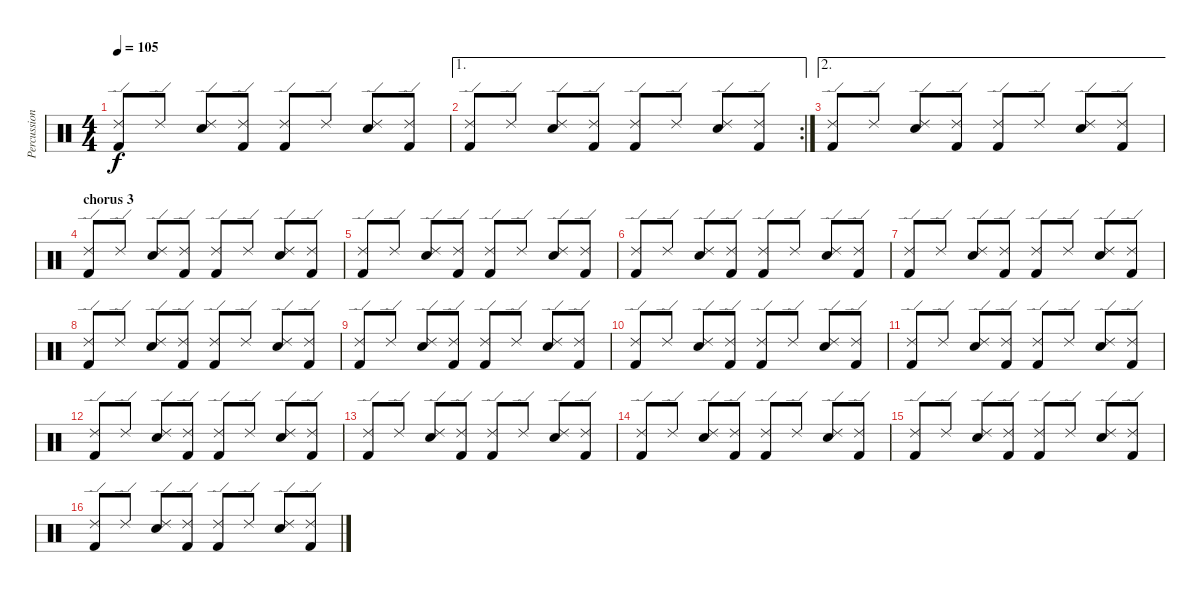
\track ("Percussion" "Percussion") {instrument percussion}
\staff {score}
\articulation defaults
\ts (4 4)
\tempo 105
\clef neutral
\ks c
("Ride (edge) 2" "Kick (hit) 2").8{dy f} "Ride (edge) 2".8 ("Ride (edge) 2" "Electric Snare (hit)").8 ("Ride (edge) 2" "Kick (hit) 2").8 ("Ride (edge) 2" "Kick (hit) 2").8 "Ride (edge) 2".8 ("Ride (edge) 2" "Electric Snare (hit)").8 ("Ride (edge) 2" "Kick (hit) 2").8 |
\ae 1
\rc 2
("Ride (edge) 2" "Kick (hit) 2").8 "Ride (edge) 2".8 ("Ride (edge) 2" "Electric Snare (hit)").8 ("Ride (edge) 2" "Kick (hit) 2").8 ("Ride (edge) 2" "Kick (hit) 2").8 "Ride (edge) 2".8 ("Ride (edge) 2" "Electric Snare (hit)").8 ("Ride (edge) 2" "Kick (hit) 2").8 |
\ae 2
("Ride (edge) 2" "Kick (hit) 2").8 "Ride (edge) 2".8 ("Ride (edge) 2" "Electric Snare (hit)").8 ("Ride (edge) 2" "Kick (hit) 2").8 ("Ride (edge) 2" "Kick (hit) 2").8 "Ride (edge) 2".8 ("Ride (edge) 2" "Electric Snare (hit)").8 ("Ride (edge) 2" "Kick (hit) 2").8 |
\section ("" "chorus 3")
("Ride (edge) 2" "Kick (hit) 2").8 "Ride (edge) 2".8 ("Ride (edge) 2" "Electric Snare (hit)").8 ("Ride (edge) 2" "Kick (hit) 2").8 ("Ride (edge) 2" "Kick (hit) 2").8 "Ride (edge) 2".8 ("Ride (edge) 2" "Electric Snare (hit)").8 ("Ride (edge) 2" "Kick (hit) 2").8 |
("Ride (edge) 2" "Kick (hit) 2").8 "Ride (edge) 2".8 ("Ride (edge) 2" "Electric Snare (hit)").8 ("Ride (edge) 2" "Kick (hit) 2").8 ("Ride (edge) 2" "Kick (hit) 2").8 "Ride (edge) 2".8 ("Ride (edge) 2" "Electric Snare (hit)").8 ("Ride (edge) 2" "Kick (hit) 2").8 |
("Ride (edge) 2" "Kick (hit) 2").8 "Ride (edge) 2".8 ("Ride (edge) 2" "Electric Snare (hit)").8 ("Ride (edge) 2" "Kick (hit) 2").8 ("Ride (edge) 2" "Kick (hit) 2").8 "Ride (edge) 2".8 ("Ride (edge) 2" "Electric Snare (hit)").8 ("Ride (edge) 2" "Kick (hit) 2").8 |
("Ride (edge) 2" "Kick (hit) 2").8 "Ride (edge) 2".8 ("Ride (edge) 2" "Electric Snare (hit)").8 ("Ride (edge) 2" "Kick (hit) 2").8 ("Ride (edge) 2" "Kick (hit) 2").8 "Ride (edge) 2".8 ("Ride (edge) 2" "Electric Snare (hit)").8 ("Ride (edge) 2" "Kick (hit) 2").8 |
("Ride (edge) 2" "Kick (hit) 2").8 "Ride (edge) 2".8 ("Ride (edge) 2" "Electric Snare (hit)").8 ("Ride (edge) 2" "Kick (hit) 2").8 ("Ride (edge) 2" "Kick (hit) 2").8 "Ride (edge) 2".8 ("Ride (edge) 2" "Electric Snare (hit)").8 ("Ride (edge) 2" "Kick (hit) 2").8 |
("Ride (edge) 2" "Kick (hit) 2").8 "Ride (edge) 2".8 ("Ride (edge) 2" "Electric Snare (hit)").8 ("Ride (edge) 2" "Kick (hit) 2").8 ("Ride (edge) 2" "Kick (hit) 2").8 "Ride (edge) 2".8 ("Ride (edge) 2" "Electric Snare (hit)").8 ("Ride (edge) 2" "Kick (hit) 2").8 |
("Ride (edge) 2" "Kick (hit) 2").8 "Ride (edge) 2".8 ("Ride (edge) 2" "Electric Snare (hit)").8 ("Ride (edge) 2" "Kick (hit) 2").8 ("Ride (edge) 2" "Kick (hit) 2").8 "Ride (edge) 2".8 ("Ride (edge) 2" "Electric Snare (hit)").8 ("Ride (edge) 2" "Kick (hit) 2").8 |
("Ride (edge) 2" "Kick (hit) 2").8 "Ride (edge) 2".8 ("Ride (edge) 2" "Electric Snare (hit)").8 ("Ride (edge) 2" "Kick (hit) 2").8 ("Ride (edge) 2" "Kick (hit) 2").8 "Ride (edge) 2".8 ("Ride (edge) 2" "Electric Snare (hit)").8 ("Ride (edge) 2" "Kick (hit) 2").8 |
("Ride (edge) 2" "Kick (hit) 2").8 "Ride (edge) 2".8 ("Ride (edge) 2" "Electric Snare (hit)").8 ("Ride (edge) 2" "Kick (hit) 2").8 ("Ride (edge) 2" "Kick (hit) 2").8 "Ride (edge) 2".8 ("Ride (edge) 2" "Electric Snare (hit)").8 ("Ride (edge) 2" "Kick (hit) 2").8 |
("Ride (edge) 2" "Kick (hit) 2").8 "Ride (edge) 2".8 ("Ride (edge) 2" "Electric Snare (hit)").8 ("Ride (edge) 2" "Kick (hit) 2").8 ("Ride (edge) 2" "Kick (hit) 2").8 "Ride (edge) 2".8 ("Ride (edge) 2" "Electric Snare (hit)").8 ("Ride (edge) 2" "Kick (hit) 2").8 |
("Ride (edge) 2" "Kick (hit) 2").8 "Ride (edge) 2".8 ("Ride (edge) 2" "Electric Snare (hit)").8 ("Ride (edge) 2" "Kick (hit) 2").8 ("Ride (edge) 2" "Kick (hit) 2").8 "Ride (edge) 2".8 ("Ride (edge) 2" "Electric Snare (hit)").8 ("Ride (edge) 2" "Kick (hit) 2").8 |
("Ride (edge) 2" "Kick (hit) 2").8 "Ride (edge) 2".8 ("Ride (edge) 2" "Electric Snare (hit)").8 ("Ride (edge) 2" "Kick (hit) 2").8 ("Ride (edge) 2" "Kick (hit) 2").8 "Ride (edge) 2".8 ("Ride (edge) 2" "Electric Snare (hit)").8 ("Ride (edge) 2" "Kick (hit) 2").8 |
("Ride (edge) 2" "Kick (hit) 2").8 "Ride (edge) 2".8 ("Ride (edge) 2" "Electric Snare (hit)").8 ("Ride (edge) 2" "Kick (hit) 2").8 ("Ride (edge) 2" "Kick (hit) 2").8 "Ride (edge) 2".8 ("Ride (edge) 2" "Electric Snare (hit)").8 ("Ride (edge) 2" "Kick (hit) 2").8
